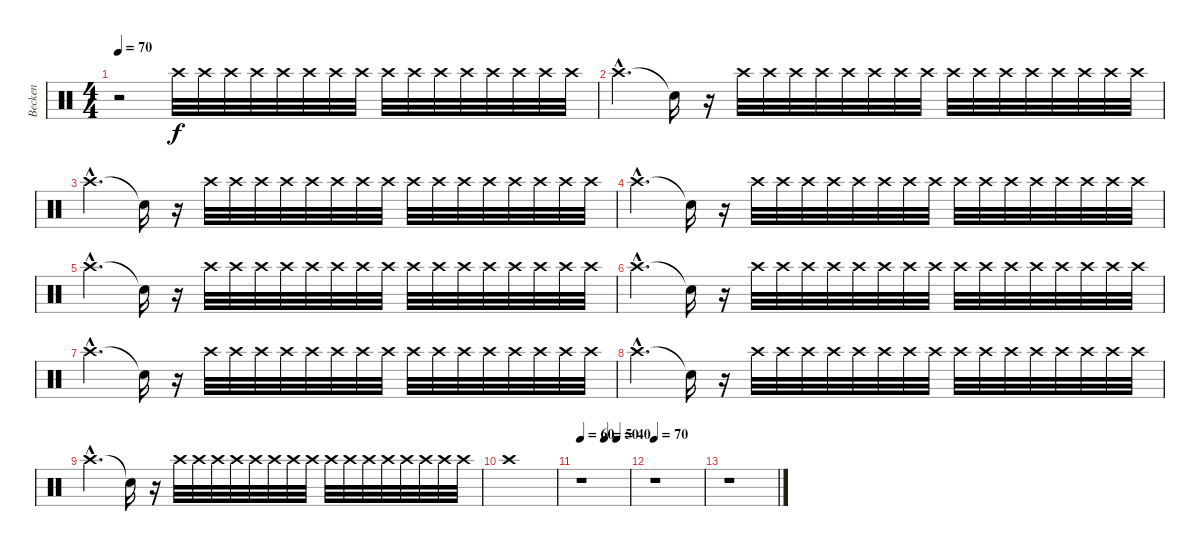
\track ("Becken" "Becken") {instrument percussion}
\staff {score}
\articulation defaults
\ts (4 4)
\tempo 70
\clef neutral
\ks c
r.2{dy f volume 0} "Crash high (hit)".32{volume 16} "Crash high (hit)".32 "Crash high (hit)".32 "Crash high (hit)".32 "Crash high (hit)".32 "Crash high (hit)".32 "Crash high (hit)".32 "Crash high (hit)".32 "Crash high (hit)".32 "Crash high (hit)".32 "Crash high (hit)".32 "Crash high (hit)".32 "Crash high (hit)".32 "Crash high (hit)".32 "Crash high (hit)".32 "Crash high (hit)".32 |
"Crash high (hit)"{hac}.4{d volume 16} "Snare (hit)"{t}.16 r.16{volume 0} "Crash high (hit)".32{volume 16} "Crash high (hit)".32 "Crash high (hit)".32 "Crash high (hit)".32 "Crash high (hit)".32 "Crash high (hit)".32 "Crash high (hit)".32 "Crash high (hit)".32 "Crash high (hit)".32 "Crash high (hit)".32 "Crash high (hit)".32 "Crash high (hit)".32 "Crash high (hit)".32 "Crash high (hit)".32 "Crash high (hit)".32 "Crash high (hit)".32 |
"Crash high (hit)"{hac}.4{d volume 16} "Snare (hit)"{t}.16 r.16{volume 0} "Crash high (hit)".32{volume 16} "Crash high (hit)".32 "Crash high (hit)".32 "Crash high (hit)".32 "Crash high (hit)".32 "Crash high (hit)".32 "Crash high (hit)".32 "Crash high (hit)".32 "Crash high (hit)".32 "Crash high (hit)".32 "Crash high (hit)".32 "Crash high (hit)".32 "Crash high (hit)".32 "Crash high (hit)".32 "Crash high (hit)".32 "Crash high (hit)".32 |
"Crash high (hit)"{hac}.4{d volume 16} "Snare (hit)"{t}.16 r.16{volume 0} "Crash high (hit)".32{volume 16} "Crash high (hit)".32 "Crash high (hit)".32 "Crash high (hit)".32 "Crash high (hit)".32 "Crash high (hit)".32 "Crash high (hit)".32 "Crash high (hit)".32 "Crash high (hit)".32 "Crash high (hit)".32 "Crash high (hit)".32 "Crash high (hit)".32 "Crash high (hit)".32 "Crash high (hit)".32 "Crash high (hit)".32 "Crash high (hit)".32 |
"Crash high (hit)"{hac}.4{d volume 16} "Snare (hit)"{t}.16 r.16{volume 0} "Crash high (hit)".32{volume 16} "Crash high (hit)".32 "Crash high (hit)".32 "Crash high (hit)".32 "Crash high (hit)".32 "Crash high (hit)".32 "Crash high (hit)".32 "Crash high (hit)".32 "Crash high (hit)".32 "Crash high (hit)".32 "Crash high (hit)".32 "Crash high (hit)".32 "Crash high (hit)".32 "Crash high (hit)".32 "Crash high (hit)".32 "Crash high (hit)".32 |
"Crash high (hit)"{hac}.4{d volume 16} "Snare (hit)"{t}.16 r.16{volume 0} "Crash high (hit)".32{volume 16} "Crash high (hit)".32 "Crash high (hit)".32 "Crash high (hit)".32 "Crash high (hit)".32 "Crash high (hit)".32 "Crash high (hit)".32 "Crash high (hit)".32 "Crash high (hit)".32 "Crash high (hit)".32 "Crash high (hit)".32 "Crash high (hit)".32 "Crash high (hit)".32 "Crash high (hit)".32 "Crash high (hit)".32 "Crash high (hit)".32 |
"Crash high (hit)"{hac}.4{d volume 16} "Snare (hit)"{t}.16 r.16{volume 0} "Crash high (hit)".32{volume 16} "Crash high (hit)".32 "Crash high (hit)".32 "Crash high (hit)".32 "Crash high (hit)".32 "Crash high (hit)".32 "Crash high (hit)".32 "Crash high (hit)".32 "Crash high (hit)".32 "Crash high (hit)".32 "Crash high (hit)".32 "Crash high (hit)".32 "Crash high (hit)".32 "Crash high (hit)".32 "Crash high (hit)".32 "Crash high (hit)".32 |
"Crash high (hit)"{hac}.4{d volume 16} "Snare (hit)"{t}.16 r.16{volume 0} "Crash high (hit)".32{volume 16} "Crash high (hit)".32 "Crash high (hit)".32 "Crash high (hit)".32 "Crash high (hit)".32 "Crash high (hit)".32 "Crash high (hit)".32 "Crash high (hit)".32 "Crash high (hit)".32 "Crash high (hit)".32 "Crash high (hit)".32 "Crash high (hit)".32 "Crash high (hit)".32 "Crash high (hit)".32 "Crash high (hit)".32 "Crash high (hit)".32 |
"Crash high (hit)"{hac}.4{d volume 16} "Snare (hit)"{t}.16 r.16{volume 0} "Crash high (hit)".32{volume 16} "Crash high (hit)".32 "Crash high (hit)".32 "Crash high (hit)".32 "Crash high (hit)".32 "Crash high (hit)".32 "Crash high (hit)".32 "Crash high (hit)".32 "Crash high (hit)".32 "Crash high (hit)".32 "Crash high (hit)".32 "Crash high (hit)".32 "Crash high (hit)".32 "Crash high (hit)".32 "Crash high (hit)".32 "Crash high (hit)".32 |
"Crash high (hit)".1{volume 16} |
\tempo 60
\tempo (50 0.5)
\tempo (40 0.75)
r.1 |
\tempo 70
r.1 |
r.1
